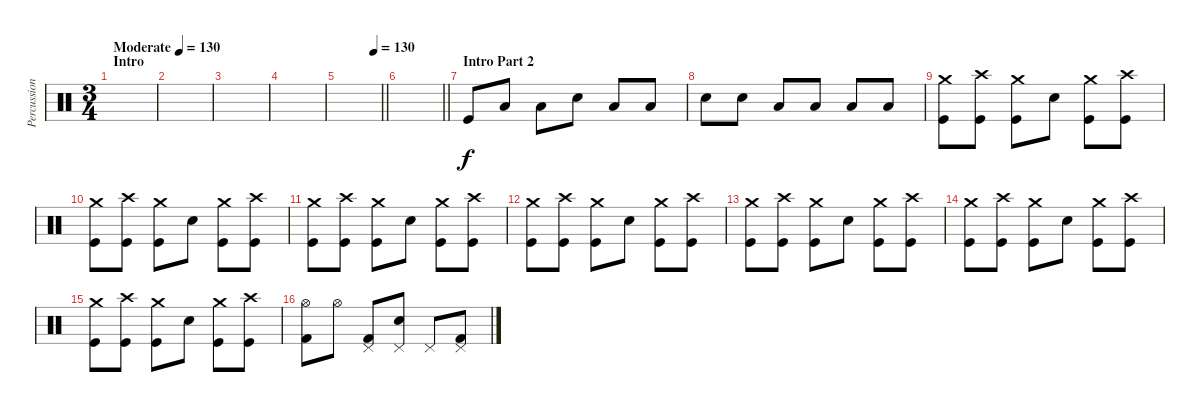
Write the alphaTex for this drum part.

\track ("Percussion" "Percussion") {instrument percussion}
\staff {score}
\articulation defaults
\ts (3 4)
\section ("" "Intro")
\tempo (130 "Moderate")
\tempo 57
\tempo (130 "Moderate")
\clef neutral
\ks c
|
|
|
|
\tempo (130 0.8333333333333334)
\barLineRight lightlight
|
\barLineRight lightlight
|
\section ("" "Intro Part 2")
"Kick (hit)".8 "Low Floor Tom (hit)".8 "Low Tom (hit)".8 "Snare (hit) 2".8 "Low Floor Tom (hit)".8 "Low Tom (hit)".8 |
"Snare (hit) 2".8 "Snare (hit) 2".8 "Low Tom (hit)".8 "Low Tom (hit)".8 "Low Floor Tom (hit)".8 "Low Floor Tom (hit)".8 |
("Crash medium (hit)" "Kick (hit)").8{volume 8} ("Crash high (hit)" "Kick (hit)").8 ("Crash medium (hit)" "Kick (hit)").8 "Snare (hit) 2".8 ("Crash medium (hit)" "Kick (hit)").8 ("Crash high (hit)" "Kick (hit)").8 |
("Crash medium (hit)" "Kick (hit)").8 ("Crash high (hit)" "Kick (hit)").8 ("Crash medium (hit)" "Kick (hit)").8 "Snare (hit) 2".8 ("Crash medium (hit)" "Kick (hit)").8 ("Crash high (hit)" "Kick (hit)").8 |
("Crash medium (hit)" "Kick (hit)").8 ("Crash high (hit)" "Kick (hit)").8 ("Crash medium (hit)" "Kick (hit)").8 "Snare (hit) 2".8 ("Crash medium (hit)" "Kick (hit)").8 ("Crash high (hit)" "Kick (hit)").8 |
("Crash medium (hit)" "Kick (hit)").8 ("Crash high (hit)" "Kick (hit)").8 ("Crash medium (hit)" "Kick (hit)").8 "Snare (hit) 2".8 ("Crash medium (hit)" "Kick (hit)").8 ("Crash high (hit)" "Kick (hit)").8 |
("Crash medium (hit)" "Kick (hit)").8 ("Crash high (hit)" "Kick (hit)").8 ("Crash medium (hit)" "Kick (hit)").8 "Snare (hit) 2".8 ("Crash medium (hit)" "Kick (hit)").8 ("Crash high (hit)" "Kick (hit)").8 |
("Crash medium (hit)" "Kick (hit)").8 ("Crash high (hit)" "Kick (hit)").8 ("Crash medium (hit)" "Kick (hit)").8 "Snare (hit) 2".8 ("Crash medium (hit)" "Kick (hit)").8 ("Crash high (hit)" "Kick (hit)").8 |
("Crash medium (hit)" "Kick (hit)").8 ("Crash high (hit)" "Kick (hit)").8 ("Crash medium (hit)" "Kick (hit)").8 "Snare (hit) 2".8 ("Crash medium (hit)" "Kick (hit)").8 ("Crash high (hit)" "Kick (hit)").8 |
("Hi-Hat (open)" "Kick (hit) 2").8{volume 13} "Hi-Hat (open)".8 ("Pedal Hi-Hat (hit)" "Kick (hit) 2").8 ("Pedal Hi-Hat (hit)" "Electric Snare (hit)").8 "Pedal Hi-Hat (hit)".8 ("Pedal Hi-Hat (hit)" "Kick (hit) 2").8
